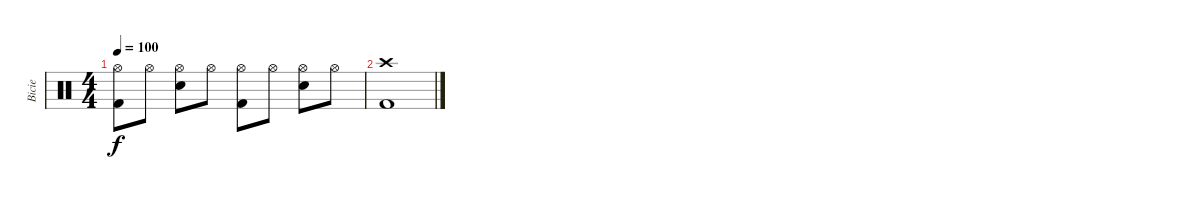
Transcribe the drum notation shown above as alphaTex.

\track ("Bicie" "Bicie") {instrument percussion}
\staff {score}
\articulation defaults
\ts (4 4)
\tempo 100
\clef neutral
\ks c
("Hi-Hat (open)" "Kick (hit) 2").8{dy f} "Hi-Hat (open)".8 ("Hi-Hat (open)" "Snare (hit) 2").8 "Hi-Hat (open)".8 ("Hi-Hat (open)" "Kick (hit) 2").8 "Hi-Hat (open)".8 ("Hi-Hat (open)" "Snare (hit) 2").8 "Hi-Hat (open)".8 |
("Crash high (hit)" "Kick (hit) 2").1
